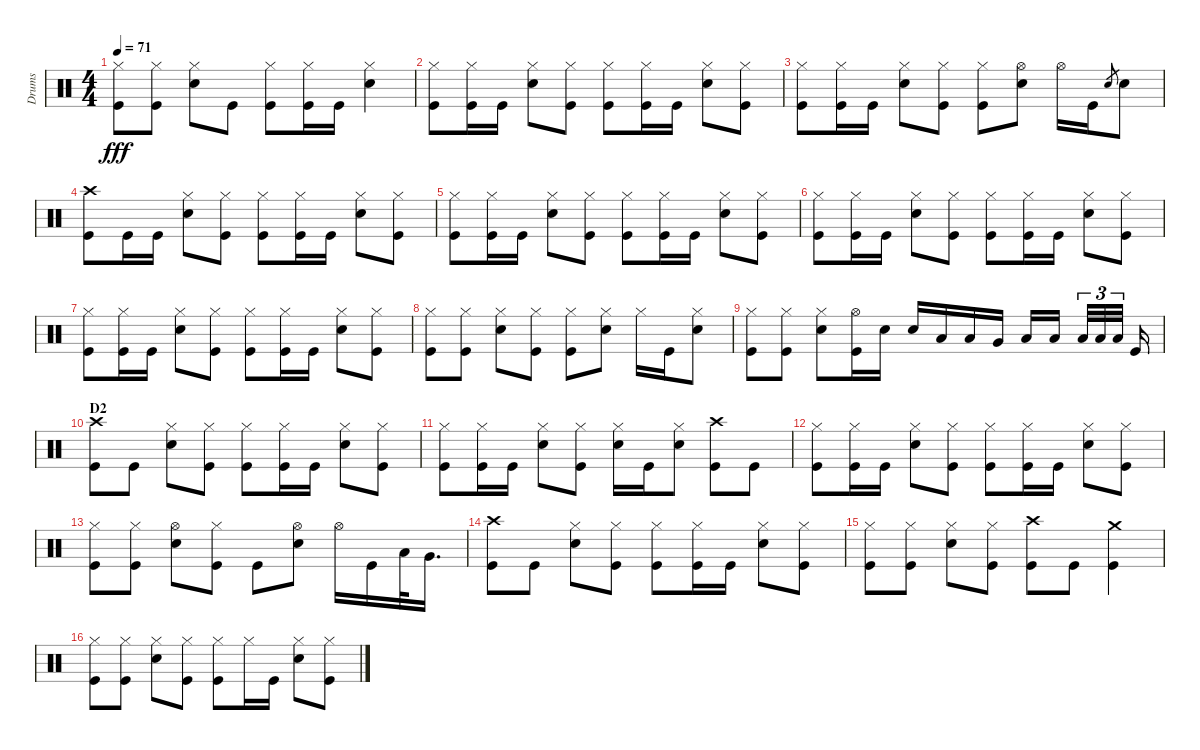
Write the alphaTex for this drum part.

\track ("Drums" "Drums") {instrument percussion}
\staff {score}
\articulation defaults
\ts (4 4)
\tempo 71
\clef neutral
\ks c
("Hi-Hat (closed)" "Kick (hit)").8{dy fff} ("Hi-Hat (closed)" "Kick (hit)").8 ("Hi-Hat (closed)" "Electric Snare (hit)").8 "Kick (hit)".8 ("Hi-Hat (closed)" "Kick (hit)").8 ("Hi-Hat (closed)" "Kick (hit)").16 "Kick (hit)".16 ("Hi-Hat (closed)" "Electric Snare (hit)").4 |
("Hi-Hat (closed)" "Kick (hit)").8 ("Hi-Hat (closed)" "Kick (hit)").16 "Kick (hit)".16 ("Hi-Hat (closed)" "Electric Snare (hit)").8 ("Hi-Hat (closed)" "Kick (hit)").8 ("Hi-Hat (closed)" "Kick (hit)").8 ("Hi-Hat (closed)" "Kick (hit)").16 "Kick (hit)".16 ("Hi-Hat (closed)" "Electric Snare (hit)").8 ("Hi-Hat (closed)" "Kick (hit)").8 |
("Hi-Hat (closed)" "Kick (hit)").8 ("Hi-Hat (closed)" "Kick (hit)").16 "Kick (hit)".16 ("Hi-Hat (closed)" "Electric Snare (hit)").8 ("Hi-Hat (closed)" "Kick (hit)").8 ("Hi-Hat (closed)" "Kick (hit)").8 ("Hi-Hat (open)" "Electric Snare (hit)").8 "Hi-Hat (open)".16 "Kick (hit)".16 "Electric Snare (hit)".8{gr} "Electric Snare (hit)".8 |
("Crash high (hit)" "Kick (hit)").8 "Kick (hit)".16 "Kick (hit)".16 ("Hi-Hat (closed)" "Electric Snare (hit)").8 ("Hi-Hat (closed)" "Kick (hit)").8 ("Hi-Hat (closed)" "Kick (hit)").8 ("Hi-Hat (closed)" "Kick (hit)").16 "Kick (hit)".16 ("Hi-Hat (closed)" "Electric Snare (hit)").8 ("Hi-Hat (closed)" "Kick (hit)").8 |
("Hi-Hat (closed)" "Kick (hit)").8 ("Hi-Hat (closed)" "Kick (hit)").16 "Kick (hit)".16 ("Hi-Hat (closed)" "Electric Snare (hit)").8 ("Hi-Hat (closed)" "Kick (hit)").8 ("Hi-Hat (closed)" "Kick (hit)").8 ("Hi-Hat (closed)" "Kick (hit)").16 "Kick (hit)".16 ("Hi-Hat (closed)" "Electric Snare (hit)").8 ("Hi-Hat (closed)" "Kick (hit)").8 |
("Hi-Hat (closed)" "Kick (hit)").8 ("Hi-Hat (closed)" "Kick (hit)").16 "Kick (hit)".16 ("Hi-Hat (closed)" "Electric Snare (hit)").8 ("Hi-Hat (closed)" "Kick (hit)").8 ("Hi-Hat (closed)" "Kick (hit)").8 ("Hi-Hat (closed)" "Kick (hit)").16 "Kick (hit)".16 ("Hi-Hat (closed)" "Electric Snare (hit)").8 ("Hi-Hat (closed)" "Kick (hit)").8 |
("Hi-Hat (closed)" "Kick (hit)").8 ("Hi-Hat (closed)" "Kick (hit)").16 "Kick (hit)".16 ("Hi-Hat (closed)" "Electric Snare (hit)").8 ("Hi-Hat (closed)" "Kick (hit)").8 ("Hi-Hat (closed)" "Kick (hit)").8 ("Hi-Hat (closed)" "Kick (hit)").16 "Kick (hit)".16 ("Hi-Hat (closed)" "Electric Snare (hit)").8 ("Hi-Hat (closed)" "Kick (hit)").8 |
("Hi-Hat (closed)" "Kick (hit)").8 ("Hi-Hat (closed)" "Kick (hit)").8 ("Hi-Hat (closed)" "Electric Snare (hit)").8 ("Hi-Hat (closed)" "Kick (hit)").8 ("Hi-Hat (closed)" "Kick (hit)").8 ("Hi-Hat (closed)" "Electric Snare (hit)").8 "Hi-Hat (closed)".16 "Kick (hit)".16 ("Hi-Hat (closed)" "Electric Snare (hit)").8 |
("Hi-Hat (closed)" "Kick (hit)").8 ("Hi-Hat (closed)" "Kick (hit)").8 ("Hi-Hat (closed)" "Electric Snare (hit)").8 ("Hi-Hat (open)" "Kick (hit)").16 "Electric Snare (hit)".16 "Electric Snare (hit)".16 "Low Tom (hit)".16 "Low Tom (hit)".16 "Very Low Tom (hit)".16 "Low Floor Tom (hit)".16 "Low Floor Tom (hit)".16 "Low Floor Tom (hit)".32{tu (3 2)} "Low Floor Tom (hit)".32{tu (3 2)} "Low Floor Tom (hit)".32{tu (3 2)} "Kick (hit)".16 |
\section ("" "D2")
("Crash high (hit)" "Kick (hit)").8 "Kick (hit)".8 ("Hi-Hat (closed)" "Electric Snare (hit)").8 ("Hi-Hat (closed)" "Kick (hit)").8 ("Hi-Hat (closed)" "Kick (hit)").8 ("Hi-Hat (closed)" "Kick (hit)").16 "Kick (hit)".16 ("Hi-Hat (closed)" "Electric Snare (hit)").8 ("Hi-Hat (closed)" "Kick (hit)").8 |
("Hi-Hat (closed)" "Kick (hit)").8 ("Hi-Hat (closed)" "Kick (hit)").16 "Kick (hit)".16 ("Hi-Hat (closed)" "Electric Snare (hit)").8 ("Hi-Hat (closed)" "Kick (hit)").8 ("Hi-Hat (closed)" "Electric Snare (hit)").16 "Kick (hit)".16 ("Hi-Hat (closed)" "Electric Snare (hit)").8 ("Crash high (hit)" "Kick (hit)").8 "Kick (hit)".8 |
("Hi-Hat (closed)" "Kick (hit)").8 ("Hi-Hat (closed)" "Kick (hit)").16 "Kick (hit)".16 ("Hi-Hat (closed)" "Electric Snare (hit)").8 ("Hi-Hat (closed)" "Kick (hit)").8 ("Hi-Hat (closed)" "Kick (hit)").8 ("Hi-Hat (closed)" "Kick (hit)").16 "Kick (hit)".16 ("Hi-Hat (closed)" "Electric Snare (hit)").8 ("Hi-Hat (closed)" "Kick (hit)").8 |
("Hi-Hat (closed)" "Kick (hit)").8 ("Hi-Hat (closed)" "Kick (hit)").8 ("Hi-Hat (open)" "Electric Snare (hit)").8 ("Hi-Hat (closed)" "Kick (hit)").8 "Kick (hit)".8 ("Hi-Hat (open)" "Snare (hit) 2").8 "Hi-Hat (open)".16 "Kick (hit)".16 "Low Tom (hit)".32 "Very Low Tom (hit)".16{d} |
("Crash high (hit)" "Kick (hit)").8 "Kick (hit)".8 ("Hi-Hat (closed)" "Electric Snare (hit)").8 ("Hi-Hat (closed)" "Kick (hit)").8 ("Hi-Hat (closed)" "Kick (hit)").8 ("Hi-Hat (closed)" "Kick (hit)").16 "Kick (hit)".16 ("Hi-Hat (closed)" "Electric Snare (hit)").8 ("Hi-Hat (closed)" "Kick (hit)").8 |
("Hi-Hat (closed)" "Kick (hit)").8 ("Hi-Hat (closed)" "Kick (hit)").8 ("Hi-Hat (closed)" "Electric Snare (hit)").8 ("Hi-Hat (closed)" "Kick (hit)").8 ("Crash high (hit)" "Kick (hit)").8 "Kick (hit)".8 ("Crash medium (hit)" "Kick (hit)").4 |
("Hi-Hat (closed)" "Kick (hit)").8 ("Hi-Hat (closed)" "Kick (hit)").8 ("Hi-Hat (closed)" "Electric Snare (hit)").8 ("Hi-Hat (closed)" "Kick (hit)").8 ("Hi-Hat (closed)" "Kick (hit)").8 "Hi-Hat (closed)".16 "Kick (hit)".16 ("Hi-Hat (closed)" "Electric Snare (hit)").8 ("Hi-Hat (closed)" "Kick (hit)").8
